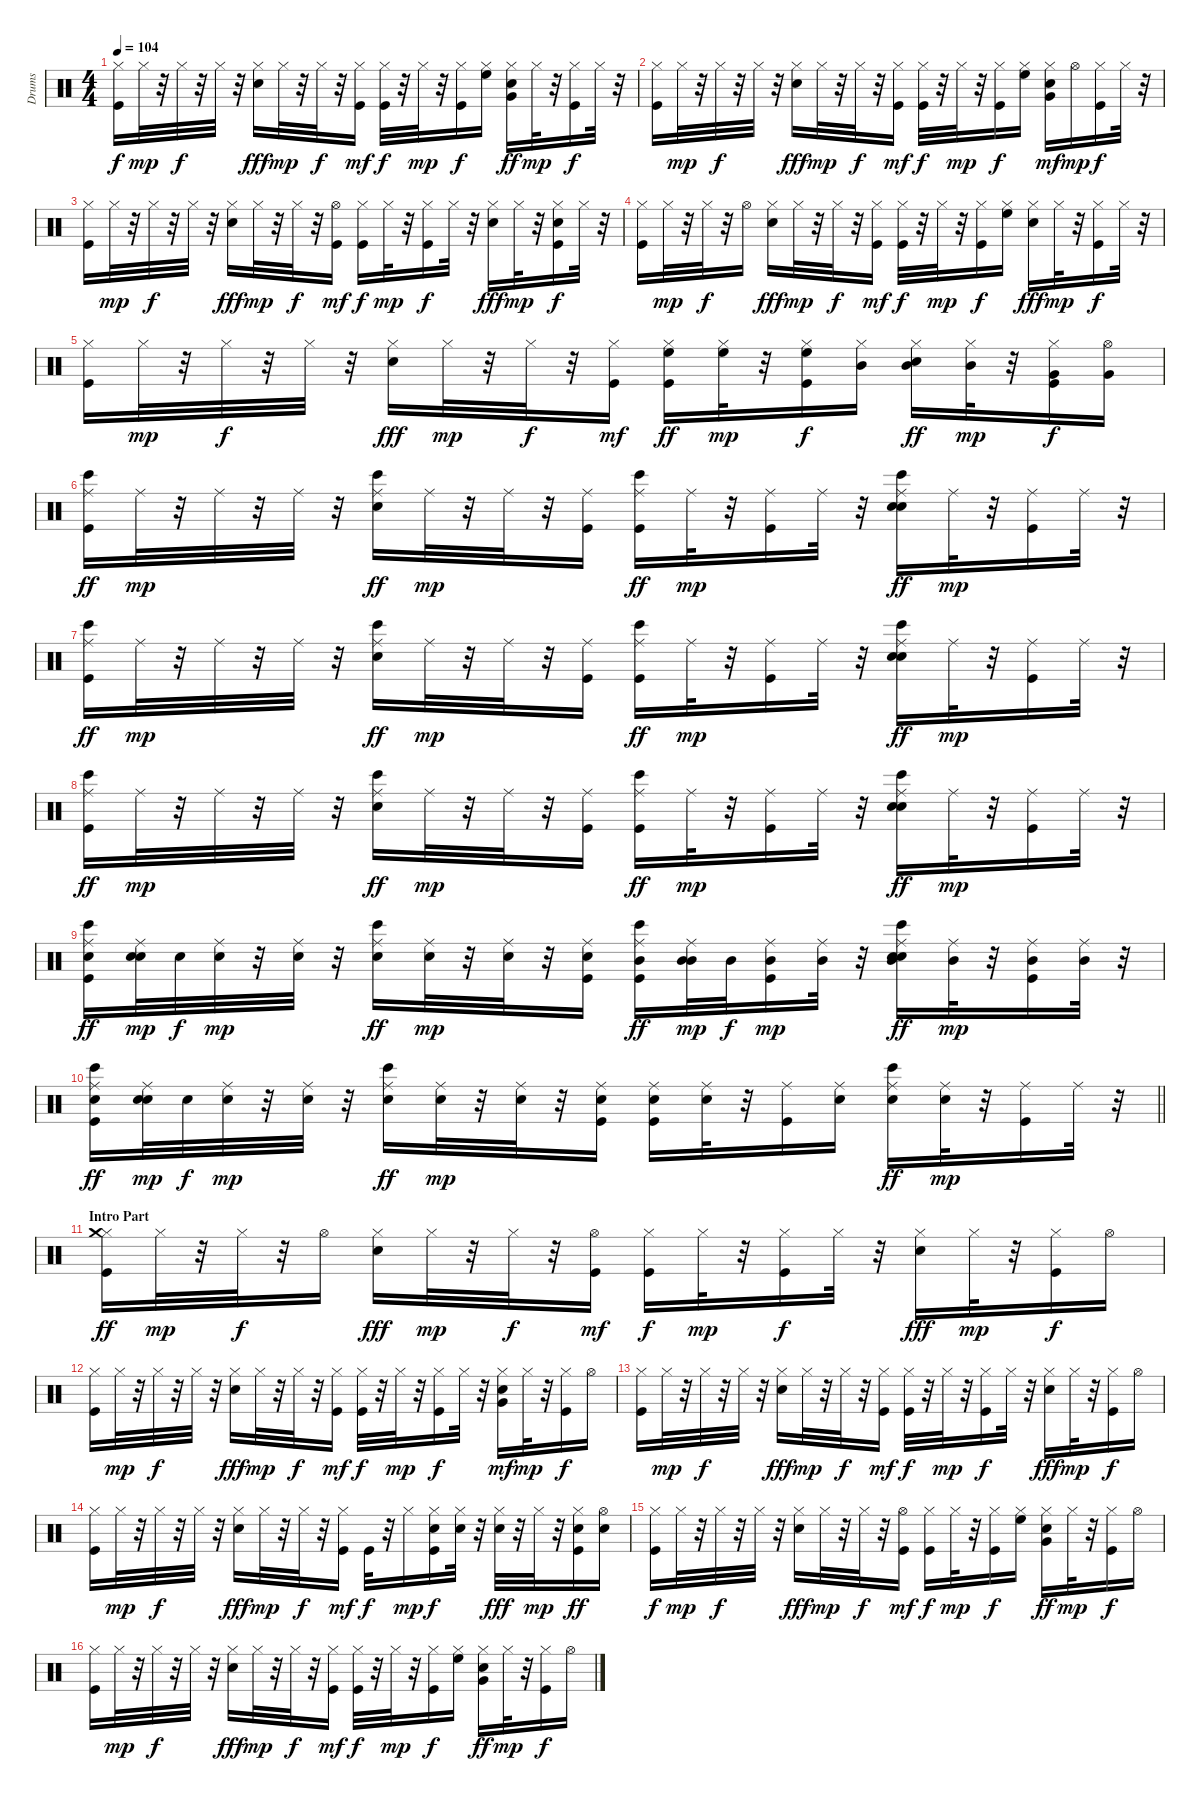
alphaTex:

\track ("Drums   " "Drums   ") {instrument percussion}
\staff {score}
\articulation defaults
\ts (4 4)
\tempo 104
\clef neutral
\ks c
("Kick (hit)" "Hi-Hat (closed)").16{dy f} "Hi-Hat (closed)".32{dy mp} r.32 "Hi-Hat (closed)".32{dy f} r.32 "Hi-Hat (closed)".32 r.32 ("Electric Snare (hit)" "Hi-Hat (closed)").16{dy fff} "Hi-Hat (closed)".32{dy mp} r.32 "Hi-Hat (closed)".32{dy f} r.32 ("Kick (hit)" "Hi-Hat (closed)").16{dy mf} ("Kick (hit)" "Hi-Hat (closed)").32{dy f} r.32 "Hi-Hat (closed)".32{dy mp} r.32 ("Kick (hit)" "Hi-Hat (closed)").16{dy f} ("Hi-Hat (closed)" "High Floor Tom (hit)").16 ("Electric Snare (hit)" "Hi-Hat (closed)" "Very Low Tom (hit)").16{dy ff} "Hi-Hat (closed)".32{dy mp} r.32 ("Kick (hit)" "Hi-Hat (closed)").16{dy f} "Hi-Hat (closed)".32 r.32 |
("Kick (hit)" "Hi-Hat (closed)").16 "Hi-Hat (closed)".32{dy mp} r.32 "Hi-Hat (closed)".32{dy f} r.32 "Hi-Hat (closed)".32 r.32 ("Electric Snare (hit)" "Hi-Hat (closed)").16{dy fff} "Hi-Hat (closed)".32{dy mp} r.32 "Hi-Hat (closed)".32{dy f} r.32 ("Kick (hit)" "Hi-Hat (closed)").16{dy mf} ("Kick (hit)" "Hi-Hat (closed)").32{dy f} r.32 "Hi-Hat (closed)".32{dy mp} r.32 ("Kick (hit)" "Hi-Hat (closed)").16{dy f} ("Hi-Hat (closed)" "High Floor Tom (hit)").16 ("Electric Snare (hit)" "Hi-Hat (closed)" "Very Low Tom (hit)").16{dy mf} "Hi-Hat (open)".16{dy mp} ("Kick (hit)" "Hi-Hat (closed)").16{dy f} "Hi-Hat (closed)".32 r.32 |
("Kick (hit)" "Hi-Hat (closed)").16 "Hi-Hat (closed)".32{dy mp} r.32 "Hi-Hat (closed)".32{dy f} r.32 "Hi-Hat (closed)".32 r.32 ("Electric Snare (hit)" "Hi-Hat (closed)").16{dy fff} "Hi-Hat (closed)".32{dy mp} r.32 "Hi-Hat (closed)".32{dy f} r.32 ("Kick (hit)" "Hi-Hat (open)").16{dy mf} ("Kick (hit)" "Hi-Hat (closed)").16{dy f} "Hi-Hat (closed)".32{dy mp} r.32 ("Kick (hit)" "Hi-Hat (closed)").16{dy f} "Hi-Hat (closed)".32 r.32 ("Electric Snare (hit)" "Hi-Hat (closed)").16{dy fff} "Hi-Hat (closed)".32{dy mp} r.32 ("Kick (hit)" "Electric Snare (hit)" "Hi-Hat (closed)").16{dy f} "Hi-Hat (closed)".32 r.32 |
("Kick (hit)" "Hi-Hat (closed)").16 "Hi-Hat (closed)".32{dy mp} r.32 "Hi-Hat (closed)".32{dy f} r.32 "Hi-Hat (open)".16 ("Electric Snare (hit)" "Hi-Hat (closed)").16{dy fff} "Hi-Hat (closed)".32{dy mp} r.32 "Hi-Hat (closed)".32{dy f} r.32 ("Kick (hit)" "Hi-Hat (closed)").16{dy mf} ("Kick (hit)" "Hi-Hat (closed)").32{dy f} r.32 "Hi-Hat (closed)".32{dy mp} r.32 ("Kick (hit)" "Hi-Hat (closed)").16{dy f} ("Hi-Hat (closed)" "High Floor Tom (hit)").16 ("Electric Snare (hit)" "Hi-Hat (closed)").16{dy fff} "Hi-Hat (closed)".32{dy mp} r.32 ("Kick (hit)" "Hi-Hat (closed)").16{dy f} "Hi-Hat (closed)".32 r.32 |
("Kick (hit)" "Hi-Hat (closed)").16 "Hi-Hat (closed)".32{dy mp} r.32 "Hi-Hat (closed)".32{dy f} r.32 "Hi-Hat (closed)".32 r.32 ("Electric Snare (hit)" "Hi-Hat (closed)").16{dy fff} "Hi-Hat (closed)".32{dy mp} r.32 "Hi-Hat (closed)".32{dy f} r.32 ("Kick (hit)" "Hi-Hat (closed)").16{dy mf} ("Kick (hit)" "Hi-Hat (closed)" "High Floor Tom (hit)").16{dy ff} ("Hi-Hat (closed)" "High Floor Tom (hit)").32{dy mp} r.32 ("Kick (hit)" "Hi-Hat (closed)" "High Floor Tom (hit)").16{dy f} ("Hi-Hat (closed)" "Mid Tom (hit)").16 ("Electric Snare (hit)" "Hi-Hat (closed)" "Mid Tom (hit)").16{dy ff} ("Hi-Hat (closed)" "Mid Tom (hit)").32{dy mp} r.32 ("Kick (hit)" "Hi-Hat (closed)" "Very Low Tom (hit)").16{dy f} ("Very Low Tom (hit)" "Hi-Hat (open)").16 |
("Kick (hit)" "Ride (middle)" "Bongo High (hit)").16{dy ff} "Ride (middle)".32{dy mp} r.32 "Ride (middle)".32 r.32 "Ride (middle)".32 r.32 ("Electric Snare (hit)" "Ride (middle)" "Bongo High (hit)").16{dy ff} "Ride (middle)".32{dy mp} r.32 "Ride (middle)".32 r.32 ("Kick (hit)" "Ride (middle)").16 ("Kick (hit)" "Ride (middle)" "Bongo High (hit)").16{dy ff} "Ride (middle)".32{dy mp} r.32 ("Kick (hit)" "Ride (middle)").16 "Ride (middle)".32 r.32 ("Hand Clap (hit)" "Electric Snare (hit)" "Ride (middle)" "Bongo High (hit)").16{dy ff} "Ride (middle)".32{dy mp} r.32 ("Kick (hit)" "Ride (middle)").16 "Ride (middle)".32 r.32 |
("Kick (hit)" "Ride (middle)" "Bongo High (hit)").16{dy ff} "Ride (middle)".32{dy mp} r.32 "Ride (middle)".32 r.32 "Ride (middle)".32 r.32 ("Electric Snare (hit)" "Ride (middle)" "Bongo High (hit)").16{dy ff} "Ride (middle)".32{dy mp} r.32 "Ride (middle)".32 r.32 ("Kick (hit)" "Ride (middle)").16 ("Kick (hit)" "Ride (middle)" "Bongo High (hit)").16{dy ff} "Ride (middle)".32{dy mp} r.32 ("Kick (hit)" "Ride (middle)").16 "Ride (middle)".32 r.32 ("Hand Clap (hit)" "Electric Snare (hit)" "Ride (middle)" "Bongo High (hit)").16{dy ff} "Ride (middle)".32{dy mp} r.32 ("Kick (hit)" "Ride (middle)").16 "Ride (middle)".32 r.32 |
("Kick (hit)" "Ride (middle)" "Bongo High (hit)").16{dy ff} "Ride (middle)".32{dy mp} r.32 "Ride (middle)".32 r.32 "Ride (middle)".32 r.32 ("Electric Snare (hit)" "Ride (middle)" "Bongo High (hit)").16{dy ff} "Ride (middle)".32{dy mp} r.32 "Ride (middle)".32 r.32 ("Kick (hit)" "Ride (middle)").16 ("Kick (hit)" "Ride (middle)" "Bongo High (hit)").16{dy ff} "Ride (middle)".32{dy mp} r.32 ("Kick (hit)" "Ride (middle)").16 "Ride (middle)".32 r.32 ("Hand Clap (hit)" "Electric Snare (hit)" "Ride (middle)" "Bongo High (hit)").16{dy ff} "Ride (middle)".32{dy mp} r.32 ("Kick (hit)" "Ride (middle)").16 "Ride (middle)".32 r.32 |
("Kick (hit)" "Electric Snare (hit)" "Ride (middle)" "Bongo High (hit)").16{dy ff} ("Electric Snare (hit)" "Ride (middle)" "Electric Snare (hit)").32{dy mp} "Electric Snare (hit)".32{dy f} ("Electric Snare (hit)" "Ride (middle)").32{dy mp} r.32 ("Electric Snare (hit)" "Ride (middle)").32 r.32 ("Electric Snare (hit)" "Ride (middle)" "Bongo High (hit)").16{dy ff} ("Electric Snare (hit)" "Ride (middle)").32{dy mp} r.32 ("Electric Snare (hit)" "Ride (middle)").32 r.32 ("Kick (hit)" "Electric Snare (hit)" "Ride (middle)").16 ("Kick (hit)" "Mid Tom (hit)" "Ride (middle)" "Bongo High (hit)").16{dy ff} ("Mid Tom (hit)" "Ride (middle)" "Mid Tom (hit)").32{dy mp} "Mid Tom (hit)".32{dy f} ("Kick (hit)" "Mid Tom (hit)" "Ride (middle)").16{dy mp} ("Mid Tom (hit)" "Ride (middle)").32 r.32 ("Hand Clap (hit)" "Electric Snare (hit)" "Mid Tom (hit)" "Ride (middle)" "Bongo High (hit)").16{dy ff} ("Mid Tom (hit)" "Ride (middle)").32{dy mp} r.32 ("Kick (hit)" "Mid Tom (hit)" "Ride (middle)").16 ("Mid Tom (hit)" "Ride (middle)").32 r.32 |
\barLineRight lightlight
("Kick (hit)" "Electric Snare (hit)" "Ride (middle)" "Bongo High (hit)").16{dy ff} ("Electric Snare (hit)" "Ride (middle)" "Electric Snare (hit)").32{dy mp} "Electric Snare (hit)".32{dy f} ("Electric Snare (hit)" "Ride (middle)").32{dy mp} r.32 ("Electric Snare (hit)" "Ride (middle)").32 r.32 ("Electric Snare (hit)" "Ride (middle)" "Bongo High (hit)").16{dy ff} ("Electric Snare (hit)" "Ride (middle)").32{dy mp} r.32 ("Electric Snare (hit)" "Ride (middle)").32 r.32 ("Kick (hit)" "Electric Snare (hit)" "Ride (middle)").16 ("Kick (hit)" "Electric Snare (hit)" "Ride (middle)").16 ("Electric Snare (hit)" "Ride (middle)").32 r.32 ("Kick (hit)" "Ride (middle)").16 ("Electric Snare (hit)" "Ride (middle)").16 ("Electric Snare (hit)" "Ride (middle)" "Bongo High (hit)").16{dy ff} ("Electric Snare (hit)" "Ride (middle)").32{dy mp} r.32 ("Kick (hit)" "Ride (middle)").16 "Ride (middle)".32 r.32 |
\section ("" "Intro Part")
("Kick (hit)" "Hi-Hat (closed)" "Crash medium (hit)").16{dy ff} "Hi-Hat (closed)".32{dy mp} r.32 "Hi-Hat (closed)".32{dy f} r.32 "Hi-Hat (open)".16 ("Electric Snare (hit)" "Hi-Hat (closed)").16{dy fff} "Hi-Hat (closed)".32{dy mp} r.32 "Hi-Hat (closed)".32{dy f} r.32 ("Kick (hit)" "Hi-Hat (open)").16{dy mf} ("Kick (hit)" "Hi-Hat (closed)").16{dy f} "Hi-Hat (closed)".32{dy mp} r.32 ("Kick (hit)" "Hi-Hat (closed)").16{dy f} "Hi-Hat (closed)".32 r.32 ("Electric Snare (hit)" "Hi-Hat (closed)").16{dy fff} "Hi-Hat (closed)".32{dy mp} r.32 ("Kick (hit)" "Hi-Hat (closed)").16{dy f} "Hi-Hat (open)".16 |
("Kick (hit)" "Hi-Hat (closed)").16 "Hi-Hat (closed)".32{dy mp} r.32 "Hi-Hat (closed)".32{dy f} r.32 "Hi-Hat (closed)".32 r.32 ("Electric Snare (hit)" "Hi-Hat (closed)").16{dy fff} "Hi-Hat (closed)".32{dy mp} r.32 "Hi-Hat (closed)".32{dy f} r.32 ("Kick (hit)" "Hi-Hat (closed)").16{dy mf} ("Kick (hit)" "Hi-Hat (closed)").32{dy f} r.32 "Hi-Hat (closed)".32{dy mp} r.32 ("Kick (hit)" "Hi-Hat (closed)").16{dy f} "Hi-Hat (closed)".32 r.32 ("Electric Snare (hit)" "Hi-Hat (closed)" "Very Low Tom (hit)").16{dy mf} "Hi-Hat (closed)".32{dy mp} r.32 ("Kick (hit)" "Hi-Hat (closed)").16{dy f} "Hi-Hat (open)".16 |
("Kick (hit)" "Hi-Hat (closed)").16 "Hi-Hat (closed)".32{dy mp} r.32 "Hi-Hat (closed)".32{dy f} r.32 "Hi-Hat (closed)".32 r.32 ("Electric Snare (hit)" "Hi-Hat (closed)").16{dy fff} "Hi-Hat (closed)".32{dy mp} r.32 "Hi-Hat (closed)".32{dy f} r.32 ("Kick (hit)" "Hi-Hat (closed)").16{dy mf} ("Kick (hit)" "Hi-Hat (closed)").32{dy f} r.32 "Hi-Hat (closed)".32{dy mp} r.32 ("Kick (hit)" "Hi-Hat (closed)").16{dy f} "Hi-Hat (closed)".32 r.32 ("Electric Snare (hit)" "Hi-Hat (closed)").16{dy fff} "Hi-Hat (closed)".32{dy mp} r.32 ("Kick (hit)" "Hi-Hat (closed)").16{dy f} "Hi-Hat (open)".16 |
("Kick (hit)" "Hi-Hat (closed)").16 "Hi-Hat (closed)".32{dy mp} r.32 "Hi-Hat (closed)".32{dy f} r.32 "Hi-Hat (closed)".32 r.32 ("Electric Snare (hit)" "Hi-Hat (closed)").16{dy fff} "Hi-Hat (closed)".32{dy mp} r.32 "Hi-Hat (closed)".32{dy f} r.32 ("Kick (hit)" "Hi-Hat (closed)").16{dy mf} "Kick (hit)".32{dy f} r.32 "Hi-Hat (closed)".16{dy mp} ("Kick (hit)" "Electric Snare (hit)" "Hi-Hat (closed)").16{dy f} ("Electric Snare (hit)" "Hi-Hat (closed)").32 r.32 ("Electric Snare (hit)" "Hi-Hat (closed)").32{dy fff} r.32 "Hi-Hat (closed)".32{dy mp} r.32 ("Kick (hit)" "Electric Snare (hit)" "Hi-Hat (closed)").16{dy ff} ("Electric Snare (hit)" "Hi-Hat (open)").16 |
("Kick (hit)" "Hi-Hat (closed)").16{dy f} "Hi-Hat (closed)".32{dy mp} r.32 "Hi-Hat (closed)".32{dy f} r.32 "Hi-Hat (closed)".32 r.32 ("Electric Snare (hit)" "Hi-Hat (closed)").16{dy fff} "Hi-Hat (closed)".32{dy mp} r.32 "Hi-Hat (closed)".32{dy f} r.32 ("Kick (hit)" "Hi-Hat (open)").16{dy mf} ("Kick (hit)" "Hi-Hat (closed)").16{dy f} "Hi-Hat (closed)".32{dy mp} r.32 ("Kick (hit)" "Hi-Hat (closed)").16{dy f} ("Hi-Hat (closed)" "High Floor Tom (hit)").16 ("Electric Snare (hit)" "Hi-Hat (closed)" "Very Low Tom (hit)").16{dy ff} "Hi-Hat (closed)".32{dy mp} r.32 ("Kick (hit)" "Hi-Hat (closed)").16{dy f} "Hi-Hat (open)".16 |
("Kick (hit)" "Hi-Hat (closed)").16 "Hi-Hat (closed)".32{dy mp} r.32 "Hi-Hat (closed)".32{dy f} r.32 "Hi-Hat (closed)".32 r.32 ("Electric Snare (hit)" "Hi-Hat (closed)").16{dy fff} "Hi-Hat (closed)".32{dy mp} r.32 "Hi-Hat (closed)".32{dy f} r.32 ("Kick (hit)" "Hi-Hat (closed)").16{dy mf} ("Kick (hit)" "Hi-Hat (closed)").32{dy f} r.32 "Hi-Hat (closed)".32{dy mp} r.32 ("Kick (hit)" "Hi-Hat (closed)").16{dy f} ("Hi-Hat (closed)" "High Floor Tom (hit)").16 ("Electric Snare (hit)" "Hi-Hat (closed)" "Very Low Tom (hit)").16{dy ff} "Hi-Hat (closed)".32{dy mp} r.32 ("Kick (hit)" "Hi-Hat (closed)").16{dy f} "Hi-Hat (open)".16
